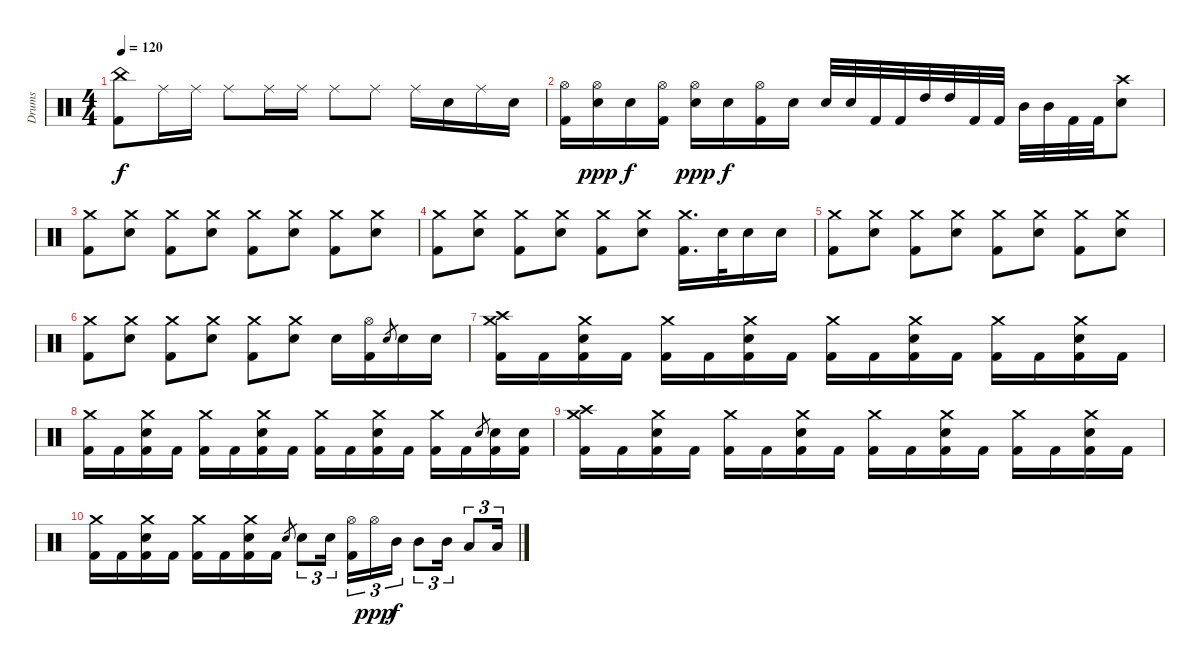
\track ("Drums" "Drums") {instrument percussion}
\staff {score}
\articulation defaults
\ts (4 4)
\tempo 120
\clef neutral
\ks c
("China (hit)" "Kick (hit) 2").8{dy f} "Ride (middle)".16 "Ride (middle)".16 "Ride (middle)".8 "Ride (middle)".16 "Ride (middle)".16 "Ride (middle)".8 "Ride (middle)".8 "Ride (middle)".16 "Electric Snare (hit)".16 "Ride (middle)".16 "Electric Snare (hit)".16 |
("Hi-Hat (open)" "Kick (hit) 2").16 ("Hi-Hat (open)" "Electric Snare (hit)").16{dy ppp} "Electric Snare (hit)".16{dy f} ("Hi-Hat (open)" "Kick (hit) 2").16 ("Hi-Hat (open)" "Electric Snare (hit)").16{dy ppp} "Electric Snare (hit)".16{dy f} ("Hi-Hat (open)" "Kick (hit) 2").16 "Electric Snare (hit)".16 "Electric Snare (hit)".32 "Electric Snare (hit)".32 "Kick (hit) 2".32 "Kick (hit) 2".32 "High Tom (hit)".32 "High Tom (hit)".32 "Kick (hit) 2".32 "Kick (hit) 2".32 "Mid Tom (hit)".32 "Mid Tom (hit)".32 "Kick (hit) 2".32 "Kick (hit) 2".32 ("Crash high (hit)" "Electric Snare (hit)").8 |
("Crash medium (hit)" "Kick (hit) 2").8 ("Crash medium (hit)" "Electric Snare (hit)").8 ("Crash medium (hit)" "Kick (hit) 2").8 ("Crash medium (hit)" "Electric Snare (hit)").8 ("Crash medium (hit)" "Kick (hit) 2").8 ("Crash medium (hit)" "Electric Snare (hit)").8 ("Crash medium (hit)" "Kick (hit) 2").8 ("Crash medium (hit)" "Electric Snare (hit)").8 |
("Crash medium (hit)" "Kick (hit) 2").8 ("Crash medium (hit)" "Electric Snare (hit)").8 ("Crash medium (hit)" "Kick (hit) 2").8 ("Crash medium (hit)" "Electric Snare (hit)").8 ("Crash medium (hit)" "Kick (hit) 2").8 ("Crash medium (hit)" "Electric Snare (hit)").8 ("Crash medium (hit)" "Kick (hit) 2").16{d} "Electric Snare (hit)".32 "Electric Snare (hit)".16 "Electric Snare (hit)".16 |
("Crash medium (hit)" "Kick (hit) 2").8 ("Crash medium (hit)" "Electric Snare (hit)").8 ("Crash medium (hit)" "Kick (hit) 2").8 ("Crash medium (hit)" "Electric Snare (hit)").8 ("Crash medium (hit)" "Kick (hit) 2").8 ("Crash medium (hit)" "Electric Snare (hit)").8 ("Crash medium (hit)" "Kick (hit) 2").8 ("Crash medium (hit)" "Electric Snare (hit)").8 |
("Crash medium (hit)" "Kick (hit) 2").8 ("Crash medium (hit)" "Electric Snare (hit)").8 ("Crash medium (hit)" "Kick (hit) 2").8 ("Crash medium (hit)" "Electric Snare (hit)").8 ("Crash medium (hit)" "Kick (hit) 2").8 ("Crash medium (hit)" "Electric Snare (hit)").8 "Electric Snare (hit)".16 ("Hi-Hat (open)" "Kick (hit) 2").16 "Electric Snare (hit)".8{gr} "Electric Snare (hit)".16 "Electric Snare (hit)".16 |
("Crash medium (hit)" "Crash high (hit)" "Kick (hit) 2").16 "Kick (hit) 2".16 ("Crash medium (hit)" "Electric Snare (hit)" "Kick (hit) 2").16 "Kick (hit) 2".16 ("Crash medium (hit)" "Kick (hit) 2").16 "Kick (hit) 2".16 ("Crash medium (hit)" "Electric Snare (hit)" "Kick (hit) 2").16 "Kick (hit) 2".16 ("Crash medium (hit)" "Kick (hit) 2").16 "Kick (hit) 2".16 ("Crash medium (hit)" "Electric Snare (hit)" "Kick (hit) 2").16 "Kick (hit) 2".16 ("Crash medium (hit)" "Kick (hit) 2").16 "Kick (hit) 2".16 ("Crash medium (hit)" "Electric Snare (hit)" "Kick (hit) 2").16 "Kick (hit) 2".16 |
("Crash medium (hit)" "Kick (hit) 2").16 "Kick (hit) 2".16 ("Crash medium (hit)" "Electric Snare (hit)" "Kick (hit) 2").16 "Kick (hit) 2".16 ("Crash medium (hit)" "Kick (hit) 2").16 "Kick (hit) 2".16 ("Crash medium (hit)" "Electric Snare (hit)" "Kick (hit) 2").16 "Kick (hit) 2".16 ("Crash medium (hit)" "Kick (hit) 2").16 "Kick (hit) 2".16 ("Crash medium (hit)" "Electric Snare (hit)" "Kick (hit) 2").16 "Kick (hit) 2".16 ("Crash medium (hit)" "Kick (hit) 2").16 "Kick (hit) 2".16 "Electric Snare (hit)".8{gr} ("Electric Snare (hit)" "Kick (hit) 2").16 ("Electric Snare (hit)" "Kick (hit) 2").16 |
("Crash medium (hit)" "Crash high (hit)" "Kick (hit) 2").16 "Kick (hit) 2".16 ("Crash medium (hit)" "Electric Snare (hit)" "Kick (hit) 2").16 "Kick (hit) 2".16 ("Crash medium (hit)" "Kick (hit) 2").16 "Kick (hit) 2".16 ("Crash medium (hit)" "Electric Snare (hit)" "Kick (hit) 2").16 "Kick (hit) 2".16 ("Crash medium (hit)" "Kick (hit) 2").16 "Kick (hit) 2".16 ("Crash medium (hit)" "Electric Snare (hit)" "Kick (hit) 2").16 "Kick (hit) 2".16 ("Crash medium (hit)" "Kick (hit) 2").16 "Kick (hit) 2".16 ("Crash medium (hit)" "Electric Snare (hit)" "Kick (hit) 2").16 "Kick (hit) 2".16 |
("Crash medium (hit)" "Kick (hit) 2").16 "Kick (hit) 2".16 ("Crash medium (hit)" "Electric Snare (hit)" "Kick (hit) 2").16 "Kick (hit) 2".16 ("Crash medium (hit)" "Kick (hit) 2").16 "Kick (hit) 2".16 ("Crash medium (hit)" "Electric Snare (hit)" "Kick (hit) 2").16 "Kick (hit) 2".16 "Electric Snare (hit)".8{gr} "Electric Snare (hit)".8{tu (3 2)} "Electric Snare (hit)".16{tu (3 2) beam splitsecondary} ("Hi-Hat (open)" "Kick (hit) 2").16{tu (3 2)} "Hi-Hat (open)".16{tu (3 2) dy ppp} "Mid Tom (hit)".16{tu (3 2) dy f} "Mid Tom (hit)".8{tu (3 2)} "Mid Tom (hit)".16{tu (3 2)} "Low Tom (hit)".8{tu (3 2)} "Low Tom (hit)".16{tu (3 2)}
